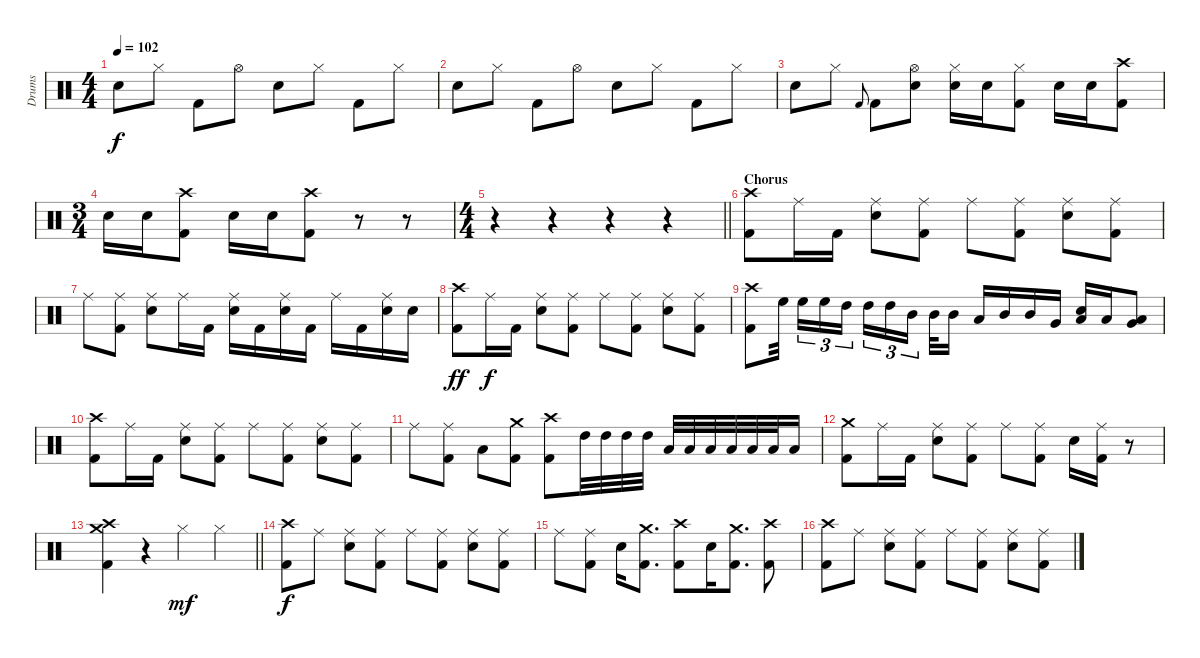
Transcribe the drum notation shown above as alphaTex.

\track ("Drums" "Drums") {instrument percussion}
\staff {score}
\articulation defaults
\ts (4 4)
\tempo 102
\clef neutral
\ks c "Snare (hit) 2".8{dy f} "Hi-Hat (closed)".8 "Kick (hit) 2".8 "Hi-Hat (open)".8 "Snare (hit) 2".8 "Hi-Hat (closed)".8 "Kick (hit) 2".8 "Hi-Hat (closed)".8
|
"Snare (hit) 2".8 "Hi-Hat (closed)".8 "Kick (hit) 2".8 "Hi-Hat (open)".8 "Snare (hit) 2".8 "Hi-Hat (closed)".8 "Kick (hit) 2".8 "Hi-Hat (closed)".8 |
"Snare (hit) 2".8 "Hi-Hat (closed)".8 "Kick (hit) 2".8{gr onbeat} "Kick (hit) 2".8 ("Hi-Hat (open)" "Snare (hit) 2").8 ("Hi-Hat (closed)" "Snare (hit) 2").16 "Snare (hit) 2".16 ("Hi-Hat (closed)" "Kick (hit) 2").8 "Snare (hit) 2".16 "Snare (hit) 2".16 ("Crash high (hit)" "Kick (hit) 2").8 |
\ts (3 4)
"Snare (hit) 2".16 "Snare (hit) 2".16 ("Crash high (hit)" "Kick (hit) 2").8 "Snare (hit) 2".16 "Snare (hit) 2".16 ("Crash high (hit)" "Kick (hit) 2").8 r.8 r.8 |
\ts (4 4)
\barLineRight lightlight
r.4 r.4 r.4 r.4 |
\section ("" "Chorus")
("Crash high (hit)" "Kick (hit) 2").8 "Ride (middle)".16 "Kick (hit) 2".16 ("Ride (middle)" "Snare (hit) 2").8 ("Ride (middle)" "Kick (hit) 2").8 "Ride (middle)".8 ("Ride (middle)" "Kick (hit) 2").8 ("Ride (middle)" "Snare (hit) 2").8 ("Ride (middle)" "Kick (hit) 2").8 |
"Ride (middle)".8 ("Ride (middle)" "Kick (hit) 2").8 ("Ride (middle)" "Snare (hit) 2").8 "Ride (middle)".16 "Kick (hit) 2".16 ("Ride (middle)" "Snare (hit) 2").16 "Kick (hit) 2".16 ("Ride (middle)" "Snare (hit) 2").16 "Kick (hit) 2".16 "Ride (middle)".16 "Kick (hit) 2".16 ("Ride (middle)" "Snare (hit) 2").16 "Snare (hit) 2".16 |
("Crash high (hit)" "Kick (hit) 2").8{dy ff} "Ride (middle)".16{dy f} "Kick (hit) 2".16 ("Ride (middle)" "Snare (hit) 2").8 ("Ride (middle)" "Kick (hit) 2").8 "Ride (middle)".8 ("Ride (middle)" "Kick (hit) 2").8 ("Ride (middle)" "Snare (hit) 2").8 ("Ride (middle)" "Kick (hit) 2").8 |
("Crash high (hit)" "Kick (hit) 2").8 "High Floor Tom (hit)".32{beam splitsecondary} "High Floor Tom (hit)".16{tu (3 2)} "High Floor Tom (hit)".16{tu (3 2)} "High Tom (hit)".16{tu (3 2)} "High Tom (hit)".16{tu (3 2)} "High Tom (hit)".16{tu (3 2)} "Mid Tom (hit)".16{tu (3 2) beam splitsecondary} "Mid Tom (hit)".32 "Mid Tom (hit)".16 "Low Tom (hit)".16 "Mid Tom (hit)".16 "Mid Tom (hit)".16 "Very Low Tom (hit)".16 ("Snare (hit) 2" "Low Tom (hit)").16 "Low Tom (hit)".16 ("Very Low Tom (hit)" "Low Floor Tom (hit)").8 |
("Crash high (hit)" "Kick (hit) 2").8 "Ride (middle)".16 "Kick (hit) 2".16 ("Ride (middle)" "Snare (hit) 2").8 ("Ride (middle)" "Kick (hit) 2").8 "Ride (middle)".8 ("Ride (middle)" "Kick (hit) 2").8 ("Ride (middle)" "Snare (hit) 2").8 ("Ride (middle)" "Kick (hit) 2").8 |
"Ride (middle)".8 ("Ride (middle)" "Kick (hit) 2").8 "Low Tom (hit)".8 ("Crash medium (hit)" "Kick (hit) 2").8 ("Crash high (hit)" "Kick (hit) 2").8 "High Tom (hit)".32 "High Tom (hit)".32 "High Tom (hit)".32 "High Tom (hit)".32 "Low Tom (hit)".32 "Low Tom (hit)".32 "Low Tom (hit)".32 "Low Tom (hit)".32 "Low Floor Tom (hit)".32 "Low Floor Tom (hit)".32 "Low Floor Tom (hit)".16 |
("Crash medium (hit)" "Kick (hit) 2").8 "Ride (middle)".16 "Kick (hit) 2".16 ("Ride (middle)" "Snare (hit) 2").8 ("Ride (middle)" "Kick (hit) 2").8 "Ride (middle)".8 ("Ride (middle)" "Kick (hit) 2").8 "Snare (hit) 2".16 ("Ride (middle)" "Kick (hit) 2").16 r.8 |
\barLineRight lightlight
("Crash medium (hit)" "Crash high (hit)" "Kick (hit) 2").4 r.4 "Hi-Hat (closed)".4{dy mf} "Hi-Hat (closed)".4 |
("Crash high (hit)" "Kick (hit) 2").8{dy f} "Ride (middle)".8 ("Ride (middle)" "Snare (hit) 2").8 ("Ride (middle)" "Kick (hit) 2").8 "Ride (middle)".8 ("Ride (middle)" "Kick (hit) 2").8 ("Ride (middle)" "Snare (hit) 2").8 ("Ride (middle)" "Kick (hit) 2").8 |
"Ride (middle)".8 ("Ride (middle)" "Kick (hit) 2").8 "Snare (hit) 2".16 ("Crash medium (hit)" "Kick (hit) 2").8{d} ("Crash high (hit)" "Kick (hit) 2").8 "Snare (hit) 2".16 ("Crash medium (hit)" "Kick (hit) 2").8{d} ("Crash high (hit)" "Kick (hit) 2").8 |
("Crash high (hit)" "Kick (hit) 2").8 "Ride (middle)".8 ("Ride (middle)" "Snare (hit) 2").8 ("Ride (middle)" "Kick (hit) 2").8 "Ride (middle)".8 ("Ride (middle)" "Kick (hit) 2").8 ("Ride (middle)" "Snare (hit) 2").8 ("Ride (middle)" "Kick (hit) 2").8
